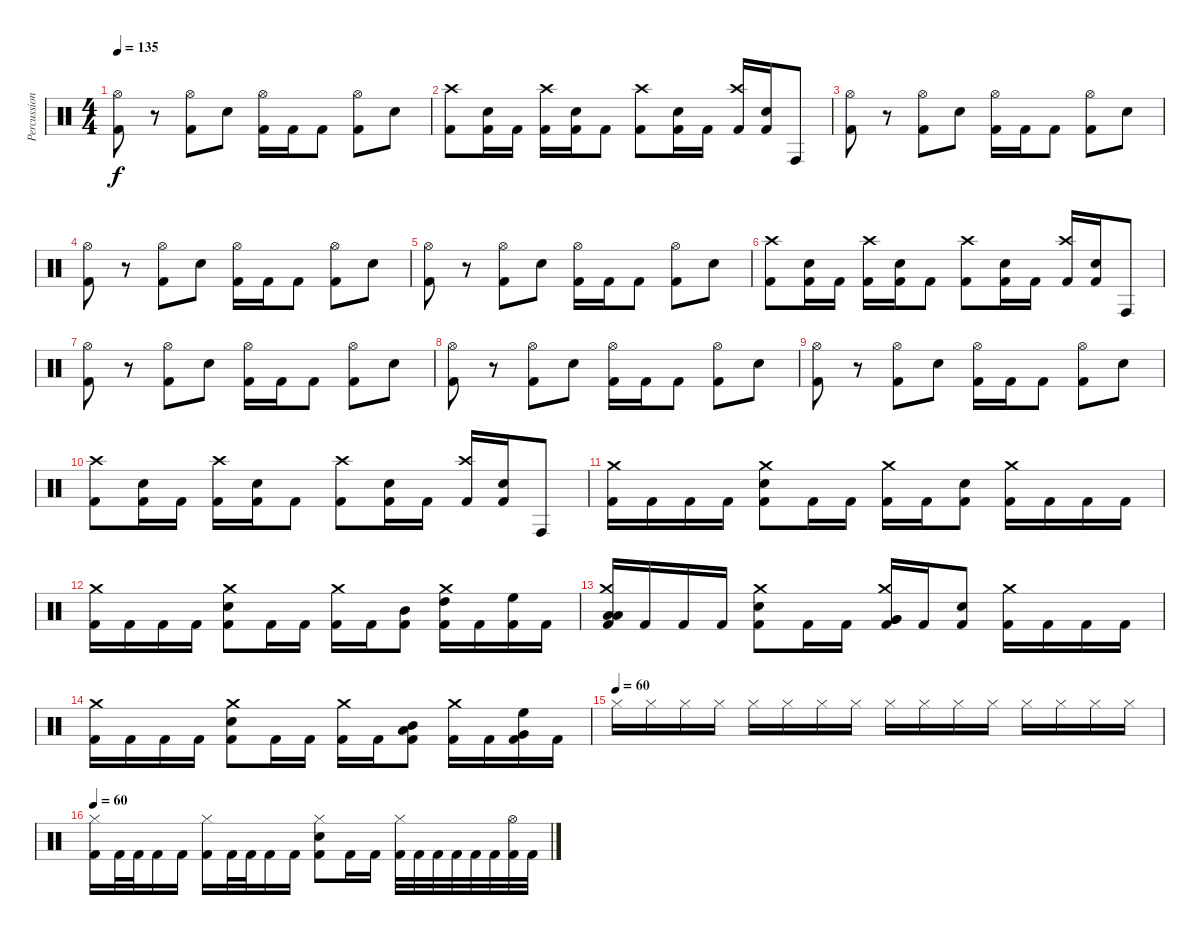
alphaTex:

\track ("Percussion" "Percussion") {instrument percussion}
\staff {score}
\articulation defaults
\ts (4 4)
\tempo 135
\clef neutral
\ks c
("Hi-Hat (open)" "Kick (hit) 2").8{dy f} r.8 ("Hi-Hat (open)" "Kick (hit) 2").8 "Snare (hit) 2".8 ("Hi-Hat (open)" "Kick (hit) 2").16 "Kick (hit) 2".16 "Kick (hit) 2".8 ("Hi-Hat (open)" "Kick (hit) 2").8 "Snare (hit) 2".8 |
("Crash high (hit)" "Kick (hit) 2").8 ("Snare (hit) 2" "Kick (hit) 2").16 "Kick (hit) 2".16 ("Crash high (hit)" "Kick (hit) 2").16 ("Snare (hit) 2" "Kick (hit) 2").16 "Kick (hit) 2".8 ("Crash high (hit)" "Kick (hit) 2").8 ("Snare (hit) 2" "Kick (hit) 2").16 "Kick (hit) 2".16 ("Crash high (hit)" "Kick (hit) 2").16 ("Snare (hit) 2" "Kick (hit) 2").16 "Conga high (hit)".8 |
("Hi-Hat (open)" "Kick (hit) 2").8 r.8 ("Hi-Hat (open)" "Kick (hit) 2").8 "Snare (hit) 2".8 ("Hi-Hat (open)" "Kick (hit) 2").16 "Kick (hit) 2".16 "Kick (hit) 2".8 ("Hi-Hat (open)" "Kick (hit) 2").8 "Snare (hit) 2".8 |
("Hi-Hat (open)" "Kick (hit) 2").8 r.8 ("Hi-Hat (open)" "Kick (hit) 2").8 "Snare (hit) 2".8 ("Hi-Hat (open)" "Kick (hit) 2").16 "Kick (hit) 2".16 "Kick (hit) 2".8 ("Hi-Hat (open)" "Kick (hit) 2").8 "Snare (hit) 2".8 |
("Hi-Hat (open)" "Kick (hit) 2").8 r.8 ("Hi-Hat (open)" "Kick (hit) 2").8 "Snare (hit) 2".8 ("Hi-Hat (open)" "Kick (hit) 2").16 "Kick (hit) 2".16 "Kick (hit) 2".8 ("Hi-Hat (open)" "Kick (hit) 2").8 "Snare (hit) 2".8 |
("Crash high (hit)" "Kick (hit) 2").8 ("Snare (hit) 2" "Kick (hit) 2").16 "Kick (hit) 2".16 ("Crash high (hit)" "Kick (hit) 2").16 ("Snare (hit) 2" "Kick (hit) 2").16 "Kick (hit) 2".8 ("Crash high (hit)" "Kick (hit) 2").8 ("Snare (hit) 2" "Kick (hit) 2").16 "Kick (hit) 2".16 ("Crash high (hit)" "Kick (hit) 2").16 ("Snare (hit) 2" "Kick (hit) 2").16 "Conga high (hit)".8 |
("Hi-Hat (open)" "Kick (hit) 2").8 r.8 ("Hi-Hat (open)" "Kick (hit) 2").8 "Snare (hit) 2".8 ("Hi-Hat (open)" "Kick (hit) 2").16 "Kick (hit) 2".16 "Kick (hit) 2".8 ("Hi-Hat (open)" "Kick (hit) 2").8 "Snare (hit) 2".8 |
("Hi-Hat (open)" "Kick (hit) 2").8 r.8 ("Hi-Hat (open)" "Kick (hit) 2").8 "Snare (hit) 2".8 ("Hi-Hat (open)" "Kick (hit) 2").16 "Kick (hit) 2".16 "Kick (hit) 2".8 ("Hi-Hat (open)" "Kick (hit) 2").8 "Snare (hit) 2".8 |
("Hi-Hat (open)" "Kick (hit) 2").8 r.8 ("Hi-Hat (open)" "Kick (hit) 2").8 "Snare (hit) 2".8 ("Hi-Hat (open)" "Kick (hit) 2").16 "Kick (hit) 2".16 "Kick (hit) 2".8 ("Hi-Hat (open)" "Kick (hit) 2").8 "Snare (hit) 2".8 |
("Crash high (hit)" "Kick (hit) 2").8 ("Snare (hit) 2" "Kick (hit) 2").16 "Kick (hit) 2".16 ("Crash high (hit)" "Kick (hit) 2").16 ("Snare (hit) 2" "Kick (hit) 2").16 "Kick (hit) 2".8 ("Crash high (hit)" "Kick (hit) 2").8 ("Snare (hit) 2" "Kick (hit) 2").16 "Kick (hit) 2".16 ("Crash high (hit)" "Kick (hit) 2").16 ("Snare (hit) 2" "Kick (hit) 2").16 "Conga high (hit)".8 |
("Crash medium (hit)" "Kick (hit) 2").16 "Kick (hit) 2".16 "Kick (hit) 2".16 "Kick (hit) 2".16 ("Crash medium (hit)" "Snare (hit) 2" "Kick (hit) 2").8 "Kick (hit) 2".16 "Kick (hit) 2".16 ("Crash medium (hit)" "Kick (hit) 2").16 "Kick (hit) 2".16 ("Snare (hit) 2" "Kick (hit) 2").8 ("Crash medium (hit)" "Kick (hit) 2").16 "Kick (hit) 2".16 "Kick (hit) 2".16 "Kick (hit) 2".16 |
("Crash medium (hit)" "Kick (hit) 2").16 "Kick (hit) 2".16 "Kick (hit) 2".16 "Kick (hit) 2".16 ("Crash medium (hit)" "Snare (hit) 2" "Kick (hit) 2").8 "Kick (hit) 2".16 "Kick (hit) 2".16 ("Crash medium (hit)" "Kick (hit) 2").16 "Kick (hit) 2".16 ("Mid Tom (hit)" "Kick (hit) 2").8 ("Crash medium (hit)" "High Tom (hit)" "Kick (hit) 2").16 "Kick (hit) 2".16 ("High Floor Tom (hit)" "Kick (hit) 2").16 "Kick (hit) 2".16 |
("Crash medium (hit)" "Low Floor Tom (hit)" "Low Floor Tom (hit)" "Kick (hit) 2").16 "Kick (hit) 2".16 "Kick (hit) 2".16 "Kick (hit) 2".16 ("Crash medium (hit)" "Snare (hit) 2" "Kick (hit) 2").8 "Kick (hit) 2".16 "Kick (hit) 2".16 ("Crash medium (hit)" "Very Low Tom (hit)" "Very Low Tom (hit)" "Kick (hit) 2").16 "Kick (hit) 2".16 ("Snare (hit) 2" "Kick (hit) 2").8 ("Crash medium (hit)" "Kick (hit) 2").16 "Kick (hit) 2".16 "Kick (hit) 2".16 "Kick (hit) 2".16 |
("Crash medium (hit)" "Kick (hit) 2").16 "Kick (hit) 2".16 "Kick (hit) 2".16 "Kick (hit) 2".16 ("Crash medium (hit)" "Snare (hit) 2" "Kick (hit) 2").8 "Kick (hit) 2".16 "Kick (hit) 2".16 ("Crash medium (hit)" "Kick (hit) 2").16 "Kick (hit) 2".16 ("Low Floor Tom (hit)" "Mid Tom (hit)" "Kick (hit) 2").8 ("Crash medium (hit)" "Kick (hit) 2").16 "Kick (hit) 2".16 ("Very Low Tom (hit)" "High Floor Tom (hit)" "Kick (hit) 2").16 "Kick (hit) 2".16 |
\tempo (60)
"Hi-Hat (closed)".16 "Hi-Hat (closed)".16 "Hi-Hat (closed)".16 "Hi-Hat (closed)".16 "Hi-Hat (closed)".16 "Hi-Hat (closed)".16 "Hi-Hat (closed)".16 "Hi-Hat (closed)".16 "Hi-Hat (closed)".16 "Hi-Hat (closed)".16 "Hi-Hat (closed)".16 "Hi-Hat (closed)".16 "Hi-Hat (closed)".16 "Hi-Hat (closed)".16 "Hi-Hat (closed)".16 "Hi-Hat (closed)".16 |
\tempo 60
("Hi-Hat (closed)" "Kick (hit) 2").16 "Kick (hit) 2".32 "Kick (hit) 2".32 "Kick (hit) 2".16 "Kick (hit) 2".16 ("Hi-Hat (closed)" "Kick (hit) 2").16 "Kick (hit) 2".32 "Kick (hit) 2".32 "Kick (hit) 2".16 "Kick (hit) 2".16 ("Hi-Hat (closed)" "Snare (hit) 2" "Kick (hit) 2").8 "Kick (hit) 2".16 "Kick (hit) 2".16 ("Hi-Hat (closed)" "Kick (hit) 2").32 "Kick (hit) 2".32 "Kick (hit) 2".32 "Kick (hit) 2".32 "Kick (hit) 2".32 "Kick (hit) 2".32 ("Hi-Hat (open)" "Kick (hit) 2").32 "Kick (hit) 2".32
